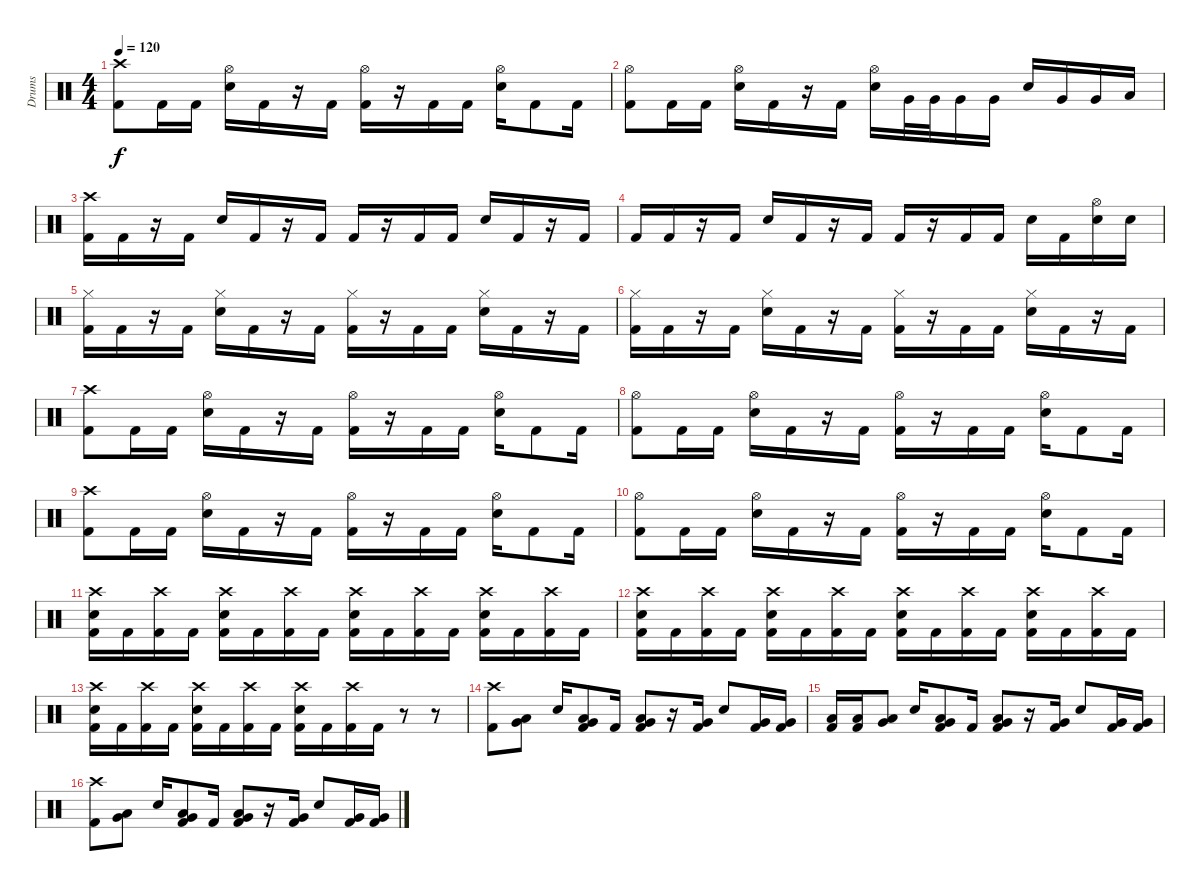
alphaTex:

\track ("Drums" "Drums") {instrument percussion}
\staff {score}
\articulation defaults
\ts (4 4)
\tempo 120
\clef neutral
\ks c
("Crash high (hit)" "Kick (hit) 2").8{dy f} "Kick (hit) 2".16 "Kick (hit) 2".16 ("Hi-Hat (open)" "Electric Snare (hit)").16 "Kick (hit) 2".16 r.16 "Kick (hit) 2".16 ("Hi-Hat (open)" "Kick (hit) 2").16 r.16 "Kick (hit) 2".16 "Kick (hit) 2".16 ("Hi-Hat (open)" "Electric Snare (hit)").16 "Kick (hit) 2".8 "Kick (hit) 2".16 |
("Hi-Hat (open)" "Kick (hit) 2").8 "Kick (hit) 2".16 "Kick (hit) 2".16 ("Hi-Hat (open)" "Electric Snare (hit)").16 "Kick (hit) 2".16 r.16 "Kick (hit) 2".16 ("Hi-Hat (open)" "Electric Snare (hit)").16 "Very Low Tom (hit)".32 "Very Low Tom (hit)".32 "Very Low Tom (hit)".16 "Very Low Tom (hit)".16 "Electric Snare (hit)".16 "Very Low Tom (hit)".16 "Very Low Tom (hit)".16 "Low Floor Tom (hit)".16 |
("Crash high (hit)" "Kick (hit) 2").16 "Kick (hit) 2".16 r.16 "Kick (hit) 2".16 "Electric Snare (hit)".16 "Kick (hit) 2".16 r.16 "Kick (hit) 2".16 "Kick (hit) 2".16 r.16 "Kick (hit) 2".16 "Kick (hit) 2".16 "Electric Snare (hit)".16 "Kick (hit) 2".16 r.16 "Kick (hit) 2".16 |
"Kick (hit) 2".16 "Kick (hit) 2".16 r.16 "Kick (hit) 2".16 "Electric Snare (hit)".16 "Kick (hit) 2".16 r.16 "Kick (hit) 2".16 "Kick (hit) 2".16 r.16 "Kick (hit) 2".16 "Kick (hit) 2".16 "Electric Snare (hit)".16 "Kick (hit) 2".16 ("Hi-Hat (open)" "Electric Snare (hit)").16 "Electric Snare (hit)".16 |
("Hi-Hat (closed)" "Kick (hit) 2").16 "Kick (hit) 2".16 r.16 "Kick (hit) 2".16 ("Hi-Hat (closed)" "Electric Snare (hit)").16 "Kick (hit) 2".16 r.16 "Kick (hit) 2".16 ("Hi-Hat (closed)" "Kick (hit) 2").16 r.16 "Kick (hit) 2".16 "Kick (hit) 2".16 ("Hi-Hat (closed)" "Electric Snare (hit)").16 "Kick (hit) 2".16 r.16 "Kick (hit) 2".16 |
("Hi-Hat (closed)" "Kick (hit) 2").16 "Kick (hit) 2".16 r.16 "Kick (hit) 2".16 ("Hi-Hat (closed)" "Electric Snare (hit)").16 "Kick (hit) 2".16 r.16 "Kick (hit) 2".16 ("Hi-Hat (closed)" "Kick (hit) 2").16 r.16 "Kick (hit) 2".16 "Kick (hit) 2".16 ("Hi-Hat (closed)" "Electric Snare (hit)").16 "Kick (hit) 2".16 r.16 "Kick (hit) 2".16 |
("Crash high (hit)" "Kick (hit) 2").8 "Kick (hit) 2".16 "Kick (hit) 2".16 ("Hi-Hat (open)" "Electric Snare (hit)").16 "Kick (hit) 2".16 r.16 "Kick (hit) 2".16 ("Hi-Hat (open)" "Kick (hit) 2").16 r.16 "Kick (hit) 2".16 "Kick (hit) 2".16 ("Hi-Hat (open)" "Electric Snare (hit)").16 "Kick (hit) 2".8 "Kick (hit) 2".16 |
("Hi-Hat (open)" "Kick (hit) 2").8 "Kick (hit) 2".16 "Kick (hit) 2".16 ("Hi-Hat (open)" "Electric Snare (hit)").16 "Kick (hit) 2".16 r.16 "Kick (hit) 2".16 ("Hi-Hat (open)" "Kick (hit) 2").16 r.16 "Kick (hit) 2".16 "Kick (hit) 2".16 ("Hi-Hat (open)" "Electric Snare (hit)").16 "Kick (hit) 2".8 "Kick (hit) 2".16 |
("Crash high (hit)" "Kick (hit) 2").8 "Kick (hit) 2".16 "Kick (hit) 2".16 ("Hi-Hat (open)" "Electric Snare (hit)").16 "Kick (hit) 2".16 r.16 "Kick (hit) 2".16 ("Hi-Hat (open)" "Kick (hit) 2").16 r.16 "Kick (hit) 2".16 "Kick (hit) 2".16 ("Hi-Hat (open)" "Electric Snare (hit)").16 "Kick (hit) 2".8 "Kick (hit) 2".16 |
("Hi-Hat (open)" "Kick (hit) 2").8 "Kick (hit) 2".16 "Kick (hit) 2".16 ("Hi-Hat (open)" "Electric Snare (hit)").16 "Kick (hit) 2".16 r.16 "Kick (hit) 2".16 ("Hi-Hat (open)" "Kick (hit) 2").16 r.16 "Kick (hit) 2".16 "Kick (hit) 2".16 ("Hi-Hat (open)" "Electric Snare (hit)").16 "Kick (hit) 2".8 "Kick (hit) 2".16 |
("Crash high (hit)" "Electric Snare (hit)" "Kick (hit) 2").16 "Kick (hit) 2".16 ("Crash high (hit)" "Kick (hit) 2").16 "Kick (hit) 2".16 ("Crash high (hit)" "Electric Snare (hit)" "Kick (hit) 2").16 "Kick (hit) 2".16 ("Crash high (hit)" "Kick (hit) 2").16 "Kick (hit) 2".16 ("Crash high (hit)" "Electric Snare (hit)" "Kick (hit) 2").16 "Kick (hit) 2".16 ("Crash high (hit)" "Kick (hit) 2").16 "Kick (hit) 2".16 ("Crash high (hit)" "Electric Snare (hit)" "Kick (hit) 2").16 "Kick (hit) 2".16 ("Crash high (hit)" "Kick (hit) 2").16 "Kick (hit) 2".16 |
("Crash high (hit)" "Electric Snare (hit)" "Kick (hit) 2").16 "Kick (hit) 2".16 ("Crash high (hit)" "Kick (hit) 2").16 "Kick (hit) 2".16 ("Crash high (hit)" "Electric Snare (hit)" "Kick (hit) 2").16 "Kick (hit) 2".16 ("Crash high (hit)" "Kick (hit) 2").16 "Kick (hit) 2".16 ("Crash high (hit)" "Electric Snare (hit)" "Kick (hit) 2").16 "Kick (hit) 2".16 ("Crash high (hit)" "Kick (hit) 2").16 "Kick (hit) 2".16 ("Crash high (hit)" "Electric Snare (hit)" "Kick (hit) 2").16 "Kick (hit) 2".16 ("Crash high (hit)" "Kick (hit) 2").16 "Kick (hit) 2".16 |
("Crash high (hit)" "Electric Snare (hit)" "Kick (hit) 2").16 "Kick (hit) 2".16 ("Crash high (hit)" "Kick (hit) 2").16 "Kick (hit) 2".16 ("Crash high (hit)" "Electric Snare (hit)" "Kick (hit) 2").16 "Kick (hit) 2".16 ("Crash high (hit)" "Kick (hit) 2").16 "Kick (hit) 2".16 ("Crash high (hit)" "Electric Snare (hit)" "Kick (hit) 2").16 "Kick (hit) 2".16 ("Crash high (hit)" "Kick (hit) 2").16 "Kick (hit) 2".16 r.8 r.8 |
("Crash high (hit)" "Kick (hit) 2").8 ("Very Low Tom (hit)" "Low Floor Tom (hit)").8 "Electric Snare (hit)".16 ("Low Floor Tom (hit)" "Very Low Tom (hit)" "Kick (hit) 2").8 "Kick (hit) 2".16 ("Low Floor Tom (hit)" "Very Low Tom (hit)" "Kick (hit) 2").8 r.16 ("Very Low Tom (hit)" "Kick (hit) 2").16 "Electric Snare (hit)".8 ("Very Low Tom (hit)" "Kick (hit) 2").16 ("Very Low Tom (hit)" "Kick (hit) 2").16 |
("Low Tom (hit)" "Kick (hit) 2").16 ("Low Tom (hit)" "Kick (hit) 2").16 ("Very Low Tom (hit)" "Low Floor Tom (hit)").8 "Electric Snare (hit)".16 ("Low Floor Tom (hit)" "Very Low Tom (hit)" "Kick (hit) 2").8 "Kick (hit) 2".16 ("Low Floor Tom (hit)" "Very Low Tom (hit)" "Kick (hit) 2").8 r.16 ("Very Low Tom (hit)" "Kick (hit) 2").16 "Electric Snare (hit)".8 ("Very Low Tom (hit)" "Kick (hit) 2").16 ("Very Low Tom (hit)" "Kick (hit) 2").16 |
("Crash high (hit)" "Kick (hit) 2").8 ("Very Low Tom (hit)" "Low Floor Tom (hit)").8 "Electric Snare (hit)".16 ("Low Floor Tom (hit)" "Very Low Tom (hit)" "Kick (hit) 2").8 "Kick (hit) 2".16 ("Low Floor Tom (hit)" "Very Low Tom (hit)" "Kick (hit) 2").8 r.16 ("Very Low Tom (hit)" "Kick (hit) 2").16 "Electric Snare (hit)".8 ("Very Low Tom (hit)" "Kick (hit) 2").16 ("Very Low Tom (hit)" "Kick (hit) 2").16
